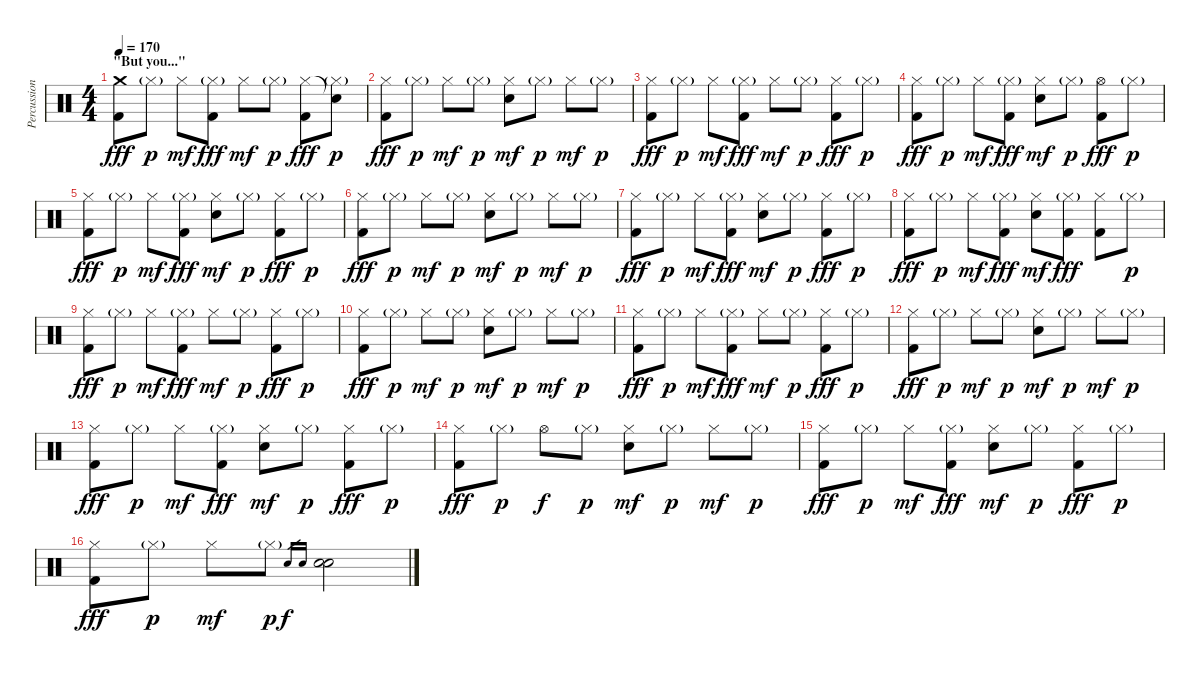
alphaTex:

\track ("Percussion" "Percussion") {instrument percussion}
\staff {score}
\articulation defaults
\ts (4 4)
\section ("" "\"But you...\"")
\tempo 170
\clef neutral
\ks c
("Crash medium (hit)" "Kick (hit) 2").8{dy fff} "Hi-Hat (closed)"{g}.8{dy p} "Hi-Hat (closed)".8{dy mf} ("Hi-Hat (closed)"{g} "Kick (hit) 2").8{dy fff} "Hi-Hat (closed)".8{dy mf} "Hi-Hat (closed)"{g}.8{dy p} ("Hi-Hat (closed)" "Kick (hit) 2").8{dy fff} ("Snare (hit)"{t} "Hi-Hat (closed)"{g}).8{dy p} |
("Hi-Hat (closed)" "Kick (hit) 2").8{dy fff} "Hi-Hat (closed)"{g}.8{dy p} "Hi-Hat (closed)".8{dy mf} "Hi-Hat (closed)"{g}.8{dy p} ("Hi-Hat (closed)" "Electric Snare (hit)").8{dy mf} "Hi-Hat (closed)"{g}.8{dy p} "Hi-Hat (closed)".8{dy mf} "Hi-Hat (closed)"{g}.8{dy p} |
("Hi-Hat (closed)" "Kick (hit) 2").8{dy fff} "Hi-Hat (closed)"{g}.8{dy p} "Hi-Hat (closed)".8{dy mf} ("Hi-Hat (closed)"{g} "Kick (hit) 2").8{dy fff} "Hi-Hat (closed)".8{dy mf} "Hi-Hat (closed)"{g}.8{dy p} ("Hi-Hat (closed)" "Kick (hit) 2").8{dy fff} "Hi-Hat (closed)"{g}.8{dy p} |
("Hi-Hat (closed)" "Kick (hit) 2").8{dy fff} "Hi-Hat (closed)"{g}.8{dy p} "Hi-Hat (closed)".8{dy mf} ("Hi-Hat (closed)"{g} "Kick (hit) 2").8{dy fff} ("Hi-Hat (closed)" "Electric Snare (hit)").8{dy mf} "Hi-Hat (closed)"{g}.8{dy p} ("Hi-Hat (open)" "Kick (hit) 2").8{dy fff} "Hi-Hat (closed)"{g}.8{dy p} |
("Hi-Hat (closed)" "Kick (hit) 2").8{dy fff} "Hi-Hat (closed)"{g}.8{dy p} "Hi-Hat (closed)".8{dy mf} ("Hi-Hat (closed)"{g} "Kick (hit) 2").8{dy fff} ("Hi-Hat (closed)" "Electric Snare (hit)").8{dy mf} "Hi-Hat (closed)"{g}.8{dy p} ("Hi-Hat (closed)" "Kick (hit) 2").8{dy fff} "Hi-Hat (closed)"{g}.8{dy p} |
("Hi-Hat (closed)" "Kick (hit) 2").8{dy fff} "Hi-Hat (closed)"{g}.8{dy p} "Hi-Hat (closed)".8{dy mf} "Hi-Hat (closed)"{g}.8{dy p} ("Hi-Hat (closed)" "Electric Snare (hit)").8{dy mf} "Hi-Hat (closed)"{g}.8{dy p} "Hi-Hat (closed)".8{dy mf} "Hi-Hat (closed)"{g}.8{dy p} |
("Hi-Hat (closed)" "Kick (hit) 2").8{dy fff} "Hi-Hat (closed)"{g}.8{dy p} "Hi-Hat (closed)".8{dy mf} ("Hi-Hat (closed)"{g} "Kick (hit) 2").8{dy fff} ("Hi-Hat (closed)" "Electric Snare (hit)").8{dy mf} "Hi-Hat (closed)"{g}.8{dy p} ("Hi-Hat (closed)" "Kick (hit) 2").8{dy fff} "Hi-Hat (closed)"{g}.8{dy p} |
("Hi-Hat (closed)" "Kick (hit) 2").8{dy fff} "Hi-Hat (closed)"{g}.8{dy p} "Hi-Hat (closed)".8{dy mf} ("Hi-Hat (closed)"{g} "Kick (hit) 2").8{dy fff} ("Hi-Hat (closed)" "Electric Snare (hit)").8{dy mf} ("Hi-Hat (closed)"{g} "Kick (hit) 2").8{dy fff} ("Hi-Hat (closed)" "Kick (hit) 2").8 "Hi-Hat (closed)"{g}.8{dy p} |
("Hi-Hat (closed)" "Kick (hit) 2").8{dy fff} "Hi-Hat (closed)"{g}.8{dy p} "Hi-Hat (closed)".8{dy mf} ("Hi-Hat (closed)"{g} "Kick (hit) 2").8{dy fff} "Hi-Hat (closed)".8{dy mf} "Hi-Hat (closed)"{g}.8{dy p} ("Hi-Hat (closed)" "Kick (hit) 2").8{dy fff} "Hi-Hat (closed)"{g}.8{dy p} |
("Hi-Hat (closed)" "Kick (hit) 2").8{dy fff} "Hi-Hat (closed)"{g}.8{dy p} "Hi-Hat (closed)".8{dy mf} "Hi-Hat (closed)"{g}.8{dy p} ("Hi-Hat (closed)" "Electric Snare (hit)").8{dy mf} "Hi-Hat (closed)"{g}.8{dy p} "Hi-Hat (closed)".8{dy mf} "Hi-Hat (closed)"{g}.8{dy p} |
("Hi-Hat (closed)" "Kick (hit) 2").8{dy fff} "Hi-Hat (closed)"{g}.8{dy p} "Hi-Hat (closed)".8{dy mf} ("Hi-Hat (closed)"{g} "Kick (hit) 2").8{dy fff} "Hi-Hat (closed)".8{dy mf} "Hi-Hat (closed)"{g}.8{dy p} ("Hi-Hat (closed)" "Kick (hit) 2").8{dy fff} "Hi-Hat (closed)"{g}.8{dy p} |
("Hi-Hat (closed)" "Kick (hit) 2").8{dy fff} "Hi-Hat (closed)"{g}.8{dy p} "Hi-Hat (closed)".8{dy mf} "Hi-Hat (closed)"{g}.8{dy p} ("Hi-Hat (closed)" "Electric Snare (hit)").8{dy mf} "Hi-Hat (closed)"{g}.8{dy p} "Hi-Hat (closed)".8{dy mf} "Hi-Hat (closed)"{g}.8{dy p} |
("Hi-Hat (closed)" "Kick (hit) 2").8{dy fff} "Hi-Hat (closed)"{g}.8{dy p} "Hi-Hat (closed)".8{dy mf} ("Hi-Hat (closed)"{g} "Kick (hit) 2").8{dy fff} ("Hi-Hat (closed)" "Electric Snare (hit)").8{dy mf} "Hi-Hat (closed)"{g}.8{dy p} ("Hi-Hat (closed)" "Kick (hit) 2").8{dy fff} "Hi-Hat (closed)"{g}.8{dy p} |
("Hi-Hat (closed)" "Kick (hit) 2").8{dy fff} "Hi-Hat (closed)"{g}.8{dy p} "Hi-Hat (open)".8{dy f} "Hi-Hat (closed)"{g}.8{dy p} ("Hi-Hat (closed)" "Electric Snare (hit)").8{dy mf} "Hi-Hat (closed)"{g}.8{dy p} "Hi-Hat (closed)".8{dy mf} "Hi-Hat (closed)"{g}.8{dy p} |
("Hi-Hat (closed)" "Kick (hit) 2").8{dy fff} "Hi-Hat (closed)"{g}.8{dy p} "Hi-Hat (closed)".8{dy mf} ("Hi-Hat (closed)"{g} "Kick (hit) 2").8{dy fff} ("Hi-Hat (closed)" "Electric Snare (hit)").8{dy mf} "Hi-Hat (closed)"{g}.8{dy p} ("Hi-Hat (closed)" "Kick (hit) 2").8{dy fff} "Hi-Hat (closed)"{g}.8{dy p} |
("Hi-Hat (closed)" "Kick (hit) 2").8{dy fff} "Hi-Hat (closed)"{g}.8{dy p} "Hi-Hat (closed)".8{dy mf} "Hi-Hat (closed)"{g}.8{dy p} "Electric Snare (hit)".16{gr dy f} "Electric Snare (hit)".16{gr} ("Electric Snare (hit)" "Electric Snare (hit)").2
